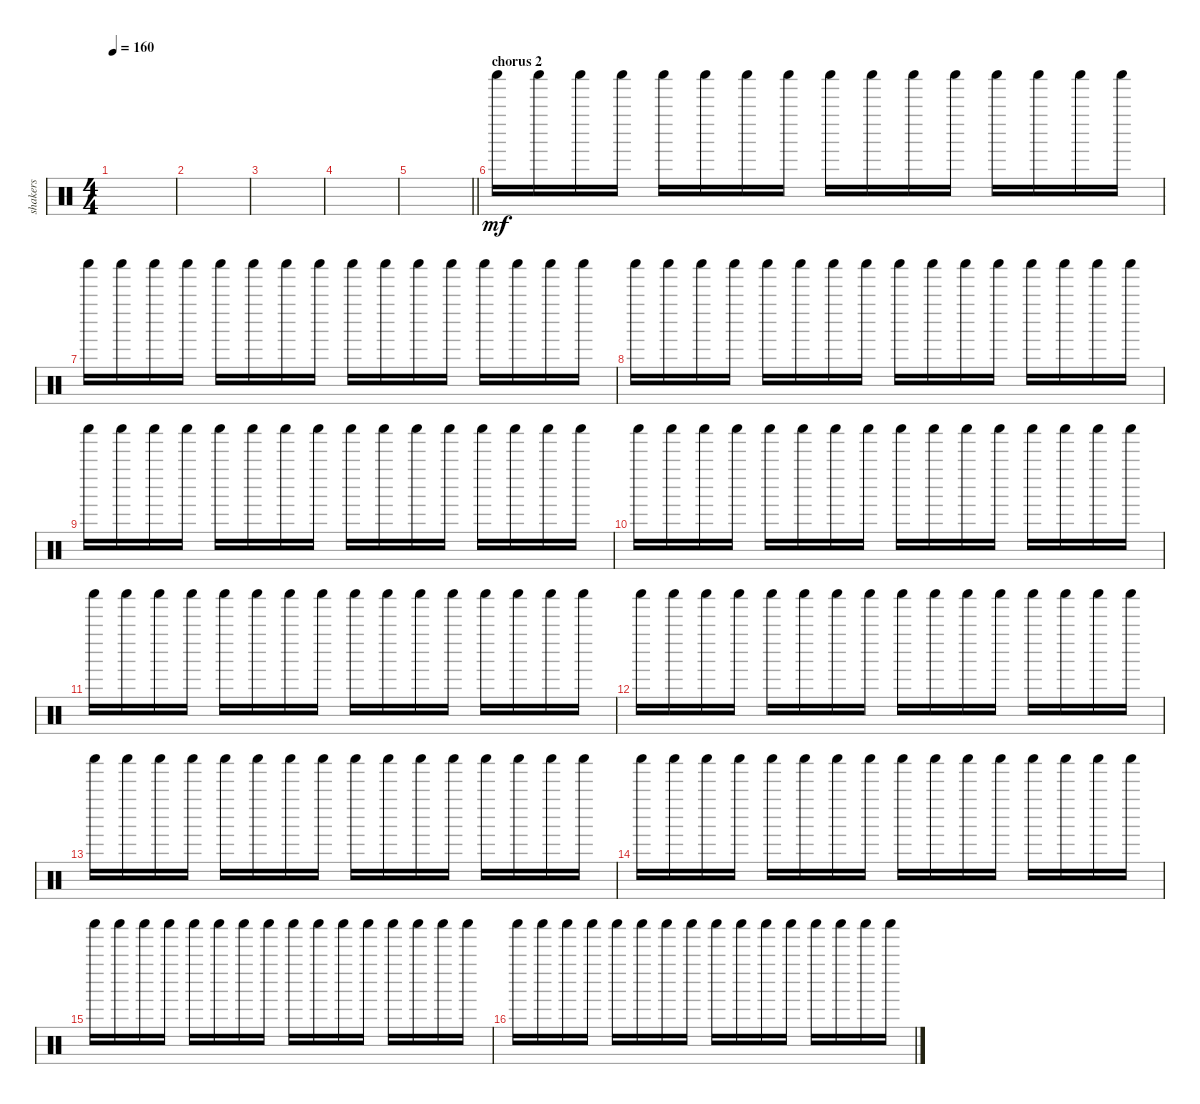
\track ("shakers" "shakers") {instrument percussion}
\staff {score}
\articulation defaults
\ts (4 4)
\tempo 160
\clef neutral
\ks c
|
|
|
|
\barLineRight lightlight
|
\section ("" "chorus 2")
"Shaker (hit)".16{dy mf} "Shaker (hit)".16 "Shaker (hit)".16 "Shaker (hit)".16 "Shaker (hit)".16 "Shaker (hit)".16 "Shaker (hit)".16 "Shaker (hit)".16 "Shaker (hit)".16 "Shaker (hit)".16 "Shaker (hit)".16 "Shaker (hit)".16 "Shaker (hit)".16 "Shaker (hit)".16 "Shaker (hit)".16 "Shaker (hit)".16 |
"Shaker (hit)".16 "Shaker (hit)".16 "Shaker (hit)".16 "Shaker (hit)".16 "Shaker (hit)".16 "Shaker (hit)".16 "Shaker (hit)".16 "Shaker (hit)".16 "Shaker (hit)".16 "Shaker (hit)".16 "Shaker (hit)".16 "Shaker (hit)".16 "Shaker (hit)".16 "Shaker (hit)".16 "Shaker (hit)".16 "Shaker (hit)".16 |
"Shaker (hit)".16 "Shaker (hit)".16 "Shaker (hit)".16 "Shaker (hit)".16 "Shaker (hit)".16 "Shaker (hit)".16 "Shaker (hit)".16 "Shaker (hit)".16 "Shaker (hit)".16 "Shaker (hit)".16 "Shaker (hit)".16 "Shaker (hit)".16 "Shaker (hit)".16 "Shaker (hit)".16 "Shaker (hit)".16 "Shaker (hit)".16 |
"Shaker (hit)".16 "Shaker (hit)".16 "Shaker (hit)".16 "Shaker (hit)".16 "Shaker (hit)".16 "Shaker (hit)".16 "Shaker (hit)".16 "Shaker (hit)".16 "Shaker (hit)".16 "Shaker (hit)".16 "Shaker (hit)".16 "Shaker (hit)".16 "Shaker (hit)".16 "Shaker (hit)".16 "Shaker (hit)".16 "Shaker (hit)".16 |
"Shaker (hit)".16 "Shaker (hit)".16 "Shaker (hit)".16 "Shaker (hit)".16 "Shaker (hit)".16 "Shaker (hit)".16 "Shaker (hit)".16 "Shaker (hit)".16 "Shaker (hit)".16 "Shaker (hit)".16 "Shaker (hit)".16 "Shaker (hit)".16 "Shaker (hit)".16 "Shaker (hit)".16 "Shaker (hit)".16 "Shaker (hit)".16 |
"Shaker (hit)".16 "Shaker (hit)".16 "Shaker (hit)".16 "Shaker (hit)".16 "Shaker (hit)".16 "Shaker (hit)".16 "Shaker (hit)".16 "Shaker (hit)".16 "Shaker (hit)".16 "Shaker (hit)".16 "Shaker (hit)".16 "Shaker (hit)".16 "Shaker (hit)".16 "Shaker (hit)".16 "Shaker (hit)".16 "Shaker (hit)".16 |
"Shaker (hit)".16 "Shaker (hit)".16 "Shaker (hit)".16 "Shaker (hit)".16 "Shaker (hit)".16 "Shaker (hit)".16 "Shaker (hit)".16 "Shaker (hit)".16 "Shaker (hit)".16 "Shaker (hit)".16 "Shaker (hit)".16 "Shaker (hit)".16 "Shaker (hit)".16 "Shaker (hit)".16 "Shaker (hit)".16 "Shaker (hit)".16 |
"Shaker (hit)".16 "Shaker (hit)".16 "Shaker (hit)".16 "Shaker (hit)".16 "Shaker (hit)".16 "Shaker (hit)".16 "Shaker (hit)".16 "Shaker (hit)".16 "Shaker (hit)".16 "Shaker (hit)".16 "Shaker (hit)".16 "Shaker (hit)".16 "Shaker (hit)".16 "Shaker (hit)".16 "Shaker (hit)".16 "Shaker (hit)".16 |
"Shaker (hit)".16 "Shaker (hit)".16 "Shaker (hit)".16 "Shaker (hit)".16 "Shaker (hit)".16 "Shaker (hit)".16 "Shaker (hit)".16 "Shaker (hit)".16 "Shaker (hit)".16 "Shaker (hit)".16 "Shaker (hit)".16 "Shaker (hit)".16 "Shaker (hit)".16 "Shaker (hit)".16 "Shaker (hit)".16 "Shaker (hit)".16 |
"Shaker (hit)".16 "Shaker (hit)".16 "Shaker (hit)".16 "Shaker (hit)".16 "Shaker (hit)".16 "Shaker (hit)".16 "Shaker (hit)".16 "Shaker (hit)".16 "Shaker (hit)".16 "Shaker (hit)".16 "Shaker (hit)".16 "Shaker (hit)".16 "Shaker (hit)".16 "Shaker (hit)".16 "Shaker (hit)".16 "Shaker (hit)".16 |
"Shaker (hit)".16 "Shaker (hit)".16 "Shaker (hit)".16 "Shaker (hit)".16 "Shaker (hit)".16 "Shaker (hit)".16 "Shaker (hit)".16 "Shaker (hit)".16 "Shaker (hit)".16 "Shaker (hit)".16 "Shaker (hit)".16 "Shaker (hit)".16 "Shaker (hit)".16 "Shaker (hit)".16 "Shaker (hit)".16 "Shaker (hit)".16
